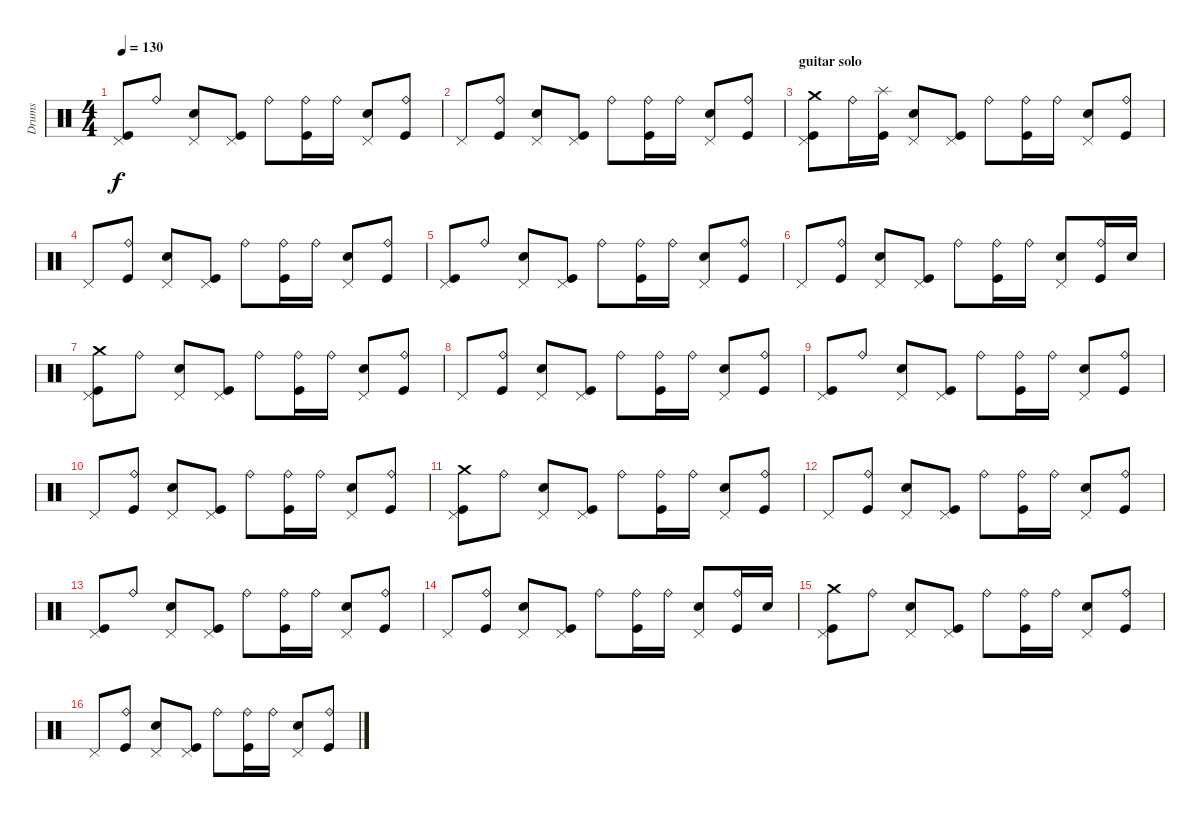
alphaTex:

\track ("Drums" "Drums") {instrument percussion}
\staff {score}
\articulation defaults
\ts (4 4)
\tempo 130
\clef neutral
\ks c
("Kick (hit)" "Pedal Hi-Hat (hit)").8{dy f} "Ride (bell)".8 ("Electric Snare (hit)" "Pedal Hi-Hat (hit)").8 ("Kick (hit)" "Pedal Hi-Hat (hit)").8 "Ride (bell)".8 ("Kick (hit)" "Ride (bell)").16 "Ride (bell)".16 ("Electric Snare (hit)" "Pedal Hi-Hat (hit)").8 ("Kick (hit)" "Ride (bell)").8 |
"Pedal Hi-Hat (hit)".8 ("Kick (hit)" "Ride (bell)").8 ("Electric Snare (hit)" "Pedal Hi-Hat (hit)").8 ("Kick (hit)" "Pedal Hi-Hat (hit)").8 "Ride (bell)".8 ("Kick (hit)" "Ride (bell)").16 "Ride (bell)".16 ("Electric Snare (hit)" "Pedal Hi-Hat (hit)").8 ("Kick (hit)" "Ride (bell)").8 |
\section ("" "guitar solo")
("Kick (hit)" "Crash medium (hit)" "Pedal Hi-Hat (hit)").8 "Ride (bell)".16 ("Kick (hit)" "Splash (hit)").16 ("Electric Snare (hit)" "Pedal Hi-Hat (hit)").8 ("Kick (hit)" "Pedal Hi-Hat (hit)").8 "Ride (bell)".8 ("Kick (hit)" "Ride (bell)").16 "Ride (bell)".16 ("Electric Snare (hit)" "Pedal Hi-Hat (hit)").8 ("Kick (hit)" "Ride (bell)").8 |
"Pedal Hi-Hat (hit)".8 ("Kick (hit)" "Ride (bell)").8 ("Electric Snare (hit)" "Pedal Hi-Hat (hit)").8 ("Kick (hit)" "Pedal Hi-Hat (hit)").8 "Ride (bell)".8 ("Kick (hit)" "Ride (bell)").16 "Ride (bell)".16 ("Electric Snare (hit)" "Pedal Hi-Hat (hit)").8 ("Kick (hit)" "Ride (bell)").8 |
("Kick (hit)" "Pedal Hi-Hat (hit)").8 "Ride (bell)".8 ("Electric Snare (hit)" "Pedal Hi-Hat (hit)").8 ("Kick (hit)" "Pedal Hi-Hat (hit)").8 "Ride (bell)".8 ("Kick (hit)" "Ride (bell)").16 "Ride (bell)".16 ("Electric Snare (hit)" "Pedal Hi-Hat (hit)").8 ("Kick (hit)" "Ride (bell)").8 |
"Pedal Hi-Hat (hit)".8 ("Kick (hit)" "Ride (bell)").8 ("Electric Snare (hit)" "Pedal Hi-Hat (hit)").8 ("Kick (hit)" "Pedal Hi-Hat (hit)").8 "Ride (bell)".8 ("Kick (hit)" "Ride (bell)").16 "Ride (bell)".16 ("Electric Snare (hit)" "Pedal Hi-Hat (hit)").8 ("Kick (hit)" "Ride (bell)").16 "Electric Snare (hit)".16 |
("Kick (hit)" "Crash medium (hit)" "Pedal Hi-Hat (hit)").8 "Ride (bell)".8 ("Electric Snare (hit)" "Pedal Hi-Hat (hit)").8 ("Kick (hit)" "Pedal Hi-Hat (hit)").8 "Ride (bell)".8 ("Kick (hit)" "Ride (bell)").16 "Ride (bell)".16 ("Electric Snare (hit)" "Pedal Hi-Hat (hit)").8 ("Kick (hit)" "Ride (bell)").8 |
"Pedal Hi-Hat (hit)".8 ("Kick (hit)" "Ride (bell)").8 ("Electric Snare (hit)" "Pedal Hi-Hat (hit)").8 ("Kick (hit)" "Pedal Hi-Hat (hit)").8 "Ride (bell)".8 ("Kick (hit)" "Ride (bell)").16 "Ride (bell)".16 ("Electric Snare (hit)" "Pedal Hi-Hat (hit)").8 ("Kick (hit)" "Ride (bell)").8 |
("Kick (hit)" "Pedal Hi-Hat (hit)").8 "Ride (bell)".8 ("Electric Snare (hit)" "Pedal Hi-Hat (hit)").8 ("Kick (hit)" "Pedal Hi-Hat (hit)").8 "Ride (bell)".8 ("Kick (hit)" "Ride (bell)").16 "Ride (bell)".16 ("Electric Snare (hit)" "Pedal Hi-Hat (hit)").8 ("Kick (hit)" "Ride (bell)").8 |
"Pedal Hi-Hat (hit)".8 ("Kick (hit)" "Ride (bell)").8 ("Electric Snare (hit)" "Pedal Hi-Hat (hit)").8 ("Kick (hit)" "Pedal Hi-Hat (hit)").8 "Ride (bell)".8 ("Kick (hit)" "Ride (bell)").16 "Ride (bell)".16 ("Electric Snare (hit)" "Pedal Hi-Hat (hit)").8 ("Kick (hit)" "Ride (bell)").8 |
("Kick (hit)" "Crash medium (hit)" "Pedal Hi-Hat (hit)").8 "Ride (bell)".8 ("Electric Snare (hit)" "Pedal Hi-Hat (hit)").8 ("Kick (hit)" "Pedal Hi-Hat (hit)").8 "Ride (bell)".8 ("Kick (hit)" "Ride (bell)").16 "Ride (bell)".16 ("Electric Snare (hit)" "Pedal Hi-Hat (hit)").8 ("Kick (hit)" "Ride (bell)").8 |
"Pedal Hi-Hat (hit)".8 ("Kick (hit)" "Ride (bell)").8 ("Electric Snare (hit)" "Pedal Hi-Hat (hit)").8 ("Kick (hit)" "Pedal Hi-Hat (hit)").8 "Ride (bell)".8 ("Kick (hit)" "Ride (bell)").16 "Ride (bell)".16 ("Electric Snare (hit)" "Pedal Hi-Hat (hit)").8 ("Kick (hit)" "Ride (bell)").8 |
("Kick (hit)" "Pedal Hi-Hat (hit)").8 "Ride (bell)".8 ("Electric Snare (hit)" "Pedal Hi-Hat (hit)").8 ("Kick (hit)" "Pedal Hi-Hat (hit)").8 "Ride (bell)".8 ("Kick (hit)" "Ride (bell)").16 "Ride (bell)".16 ("Electric Snare (hit)" "Pedal Hi-Hat (hit)").8 ("Kick (hit)" "Ride (bell)").8 |
"Pedal Hi-Hat (hit)".8 ("Kick (hit)" "Ride (bell)").8 ("Electric Snare (hit)" "Pedal Hi-Hat (hit)").8 ("Kick (hit)" "Pedal Hi-Hat (hit)").8 "Ride (bell)".8 ("Kick (hit)" "Ride (bell)").16 "Ride (bell)".16 ("Electric Snare (hit)" "Pedal Hi-Hat (hit)").8 ("Kick (hit)" "Ride (bell)").16 "Electric Snare (hit)".16 |
("Kick (hit)" "Crash medium (hit)" "Pedal Hi-Hat (hit)").8 "Ride (bell)".8 ("Electric Snare (hit)" "Pedal Hi-Hat (hit)").8 ("Kick (hit)" "Pedal Hi-Hat (hit)").8 "Ride (bell)".8 ("Kick (hit)" "Ride (bell)").16 "Ride (bell)".16 ("Electric Snare (hit)" "Pedal Hi-Hat (hit)").8 ("Kick (hit)" "Ride (bell)").8 |
"Pedal Hi-Hat (hit)".8 ("Kick (hit)" "Ride (bell)").8 ("Electric Snare (hit)" "Pedal Hi-Hat (hit)").8 ("Kick (hit)" "Pedal Hi-Hat (hit)").8 "Ride (bell)".8 ("Kick (hit)" "Ride (bell)").16 "Ride (bell)".16 ("Electric Snare (hit)" "Pedal Hi-Hat (hit)").8 ("Kick (hit)" "Ride (bell)").8
